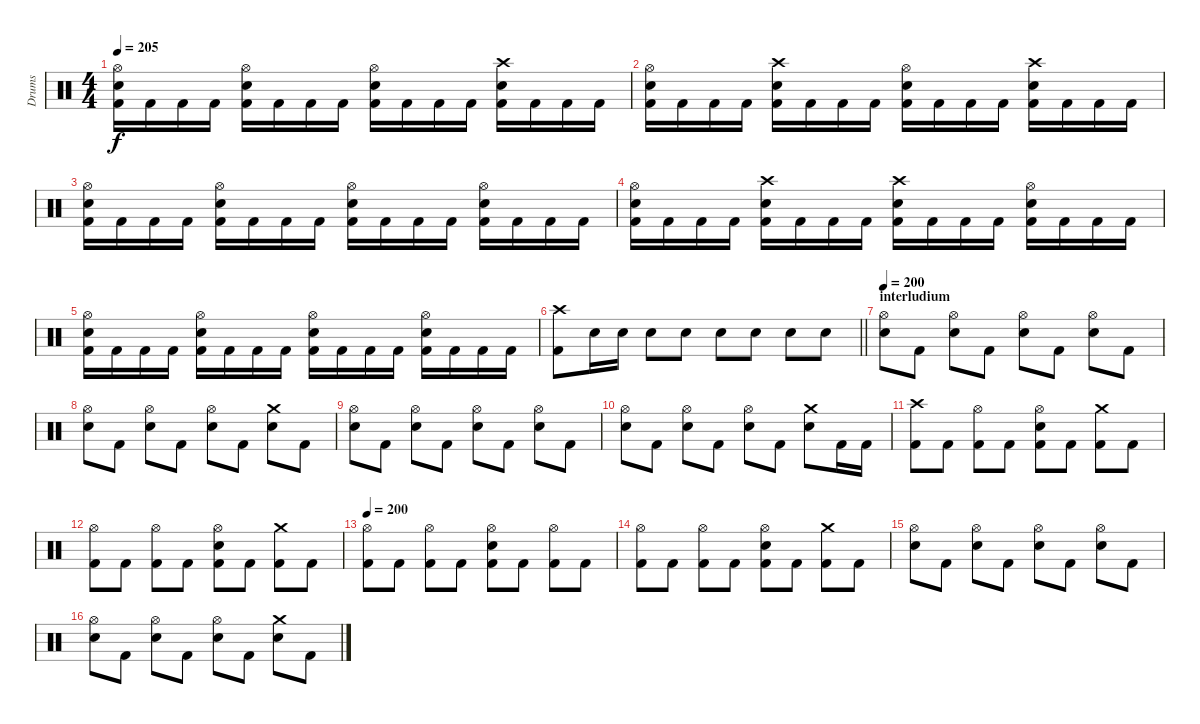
\track ("Drums" "Drums") {instrument percussion}
\staff {score}
\articulation defaults
\ts (4 4)
\tempo 205
\clef neutral
\ks c
("Kick (hit) 2" "Electric Snare (hit)" "Hi-Hat (open)").16{dy f} "Kick (hit) 2".16 "Kick (hit) 2".16 "Kick (hit) 2".16 ("Kick (hit) 2" "Electric Snare (hit)" "Hi-Hat (open)").16 "Kick (hit) 2".16 "Kick (hit) 2".16 "Kick (hit) 2".16 ("Kick (hit) 2" "Electric Snare (hit)" "Hi-Hat (open)").16 "Kick (hit) 2".16 "Kick (hit) 2".16 "Kick (hit) 2".16 ("Kick (hit) 2" "Electric Snare (hit)" "Crash high (hit)").16 "Kick (hit) 2".16 "Kick (hit) 2".16 "Kick (hit) 2".16 |
("Kick (hit) 2" "Electric Snare (hit)" "Hi-Hat (open)").16 "Kick (hit) 2".16 "Kick (hit) 2".16 "Kick (hit) 2".16 ("Kick (hit) 2" "Electric Snare (hit)" "Crash high (hit)").16 "Kick (hit) 2".16 "Kick (hit) 2".16 "Kick (hit) 2".16 ("Kick (hit) 2" "Electric Snare (hit)" "Hi-Hat (open)").16 "Kick (hit) 2".16 "Kick (hit) 2".16 "Kick (hit) 2".16 ("Kick (hit) 2" "Electric Snare (hit)" "Crash high (hit)").16 "Kick (hit) 2".16 "Kick (hit) 2".16 "Kick (hit) 2".16 |
("Kick (hit) 2" "Electric Snare (hit)" "Hi-Hat (open)").16 "Kick (hit) 2".16 "Kick (hit) 2".16 "Kick (hit) 2".16 ("Kick (hit) 2" "Electric Snare (hit)" "Hi-Hat (open)").16 "Kick (hit) 2".16 "Kick (hit) 2".16 "Kick (hit) 2".16 ("Kick (hit) 2" "Electric Snare (hit)" "Hi-Hat (open)").16 "Kick (hit) 2".16 "Kick (hit) 2".16 "Kick (hit) 2".16 ("Kick (hit) 2" "Electric Snare (hit)" "Hi-Hat (open)").16 "Kick (hit) 2".16 "Kick (hit) 2".16 "Kick (hit) 2".16 |
("Kick (hit) 2" "Electric Snare (hit)" "Hi-Hat (open)").16 "Kick (hit) 2".16 "Kick (hit) 2".16 "Kick (hit) 2".16 ("Kick (hit) 2" "Electric Snare (hit)" "Crash high (hit)").16 "Kick (hit) 2".16 "Kick (hit) 2".16 "Kick (hit) 2".16 ("Kick (hit) 2" "Electric Snare (hit)" "Crash high (hit)").16 "Kick (hit) 2".16 "Kick (hit) 2".16 "Kick (hit) 2".16 ("Kick (hit) 2" "Electric Snare (hit)" "Hi-Hat (open)").16 "Kick (hit) 2".16 "Kick (hit) 2".16 "Kick (hit) 2".16 |
("Kick (hit) 2" "Electric Snare (hit)" "Hi-Hat (open)").16 "Kick (hit) 2".16 "Kick (hit) 2".16 "Kick (hit) 2".16 ("Kick (hit) 2" "Electric Snare (hit)" "Hi-Hat (open)").16 "Kick (hit) 2".16 "Kick (hit) 2".16 "Kick (hit) 2".16 ("Kick (hit) 2" "Electric Snare (hit)" "Hi-Hat (open)").16 "Kick (hit) 2".16 "Kick (hit) 2".16 "Kick (hit) 2".16 ("Kick (hit) 2" "Electric Snare (hit)" "Hi-Hat (open)").16 "Kick (hit) 2".16 "Kick (hit) 2".16 "Kick (hit) 2".16 |
\barLineRight lightlight
("Kick (hit) 2" "Crash high (hit)").8 "Electric Snare (hit)".16 "Electric Snare (hit)".16 "Electric Snare (hit)".8 "Electric Snare (hit)".8 "Electric Snare (hit)".8 "Electric Snare (hit)".8 "Electric Snare (hit)".8 "Electric Snare (hit)".8 |
\section ("" "interludium")
\tempo 200
("Hi-Hat (open)" "Electric Snare (hit)").8 "Kick (hit) 2".8 ("Hi-Hat (open)" "Electric Snare (hit)").8 "Kick (hit) 2".8 ("Hi-Hat (open)" "Electric Snare (hit)").8 "Kick (hit) 2".8 ("Hi-Hat (open)" "Electric Snare (hit)").8 "Kick (hit) 2".8 |
("Hi-Hat (open)" "Electric Snare (hit)").8 "Kick (hit) 2".8 ("Hi-Hat (open)" "Electric Snare (hit)").8 "Kick (hit) 2".8 ("Hi-Hat (open)" "Electric Snare (hit)").8 "Kick (hit) 2".8 ("Crash medium (hit)" "Electric Snare (hit)").8 "Kick (hit) 2".8 |
("Hi-Hat (open)" "Electric Snare (hit)").8 "Kick (hit) 2".8 ("Hi-Hat (open)" "Electric Snare (hit)").8 "Kick (hit) 2".8 ("Hi-Hat (open)" "Electric Snare (hit)").8 "Kick (hit) 2".8 ("Hi-Hat (open)" "Electric Snare (hit)").8 "Kick (hit) 2".8 |
("Hi-Hat (open)" "Electric Snare (hit)").8 "Kick (hit) 2".8 ("Hi-Hat (open)" "Electric Snare (hit)").8 "Kick (hit) 2".8 ("Hi-Hat (open)" "Electric Snare (hit)").8 "Kick (hit) 2".8 ("Crash medium (hit)" "Electric Snare (hit)").8 "Kick (hit) 2".16 "Kick (hit) 2".16 |
("Crash high (hit)" "Kick (hit) 2").8 "Kick (hit) 2".8 ("Hi-Hat (open)" "Kick (hit) 2").8 "Kick (hit) 2".8 ("Hi-Hat (open)" "Electric Snare (hit)" "Kick (hit) 2").8 "Kick (hit) 2".8 ("Crash medium (hit)" "Kick (hit) 2").8 "Kick (hit) 2".8 |
("Hi-Hat (open)" "Kick (hit) 2").8 "Kick (hit) 2".8 ("Hi-Hat (open)" "Kick (hit) 2").8 "Kick (hit) 2".8 ("Hi-Hat (open)" "Electric Snare (hit)" "Kick (hit) 2").8 "Kick (hit) 2".8 ("Crash medium (hit)" "Kick (hit) 2").8 "Kick (hit) 2".8 |
\tempo 200
("Hi-Hat (open)" "Kick (hit) 2").8 "Kick (hit) 2".8 ("Hi-Hat (open)" "Kick (hit) 2").8 "Kick (hit) 2".8 ("Hi-Hat (open)" "Electric Snare (hit)" "Kick (hit) 2").8 "Kick (hit) 2".8 ("Hi-Hat (open)" "Kick (hit) 2").8 "Kick (hit) 2".8 |
("Hi-Hat (open)" "Kick (hit) 2").8 "Kick (hit) 2".8 ("Hi-Hat (open)" "Kick (hit) 2").8 "Kick (hit) 2".8 ("Hi-Hat (open)" "Electric Snare (hit)" "Kick (hit) 2").8 "Kick (hit) 2".8 ("Crash medium (hit)" "Kick (hit) 2").8 "Kick (hit) 2".8 |
("Hi-Hat (open)" "Electric Snare (hit)").8 "Kick (hit) 2".8 ("Hi-Hat (open)" "Electric Snare (hit)").8 "Kick (hit) 2".8 ("Hi-Hat (open)" "Electric Snare (hit)").8 "Kick (hit) 2".8 ("Hi-Hat (open)" "Electric Snare (hit)").8 "Kick (hit) 2".8 |
("Hi-Hat (open)" "Electric Snare (hit)").8 "Kick (hit) 2".8 ("Hi-Hat (open)" "Electric Snare (hit)").8 "Kick (hit) 2".8 ("Hi-Hat (open)" "Electric Snare (hit)").8 "Kick (hit) 2".8 ("Crash medium (hit)" "Electric Snare (hit)").8 "Kick (hit) 2".8
